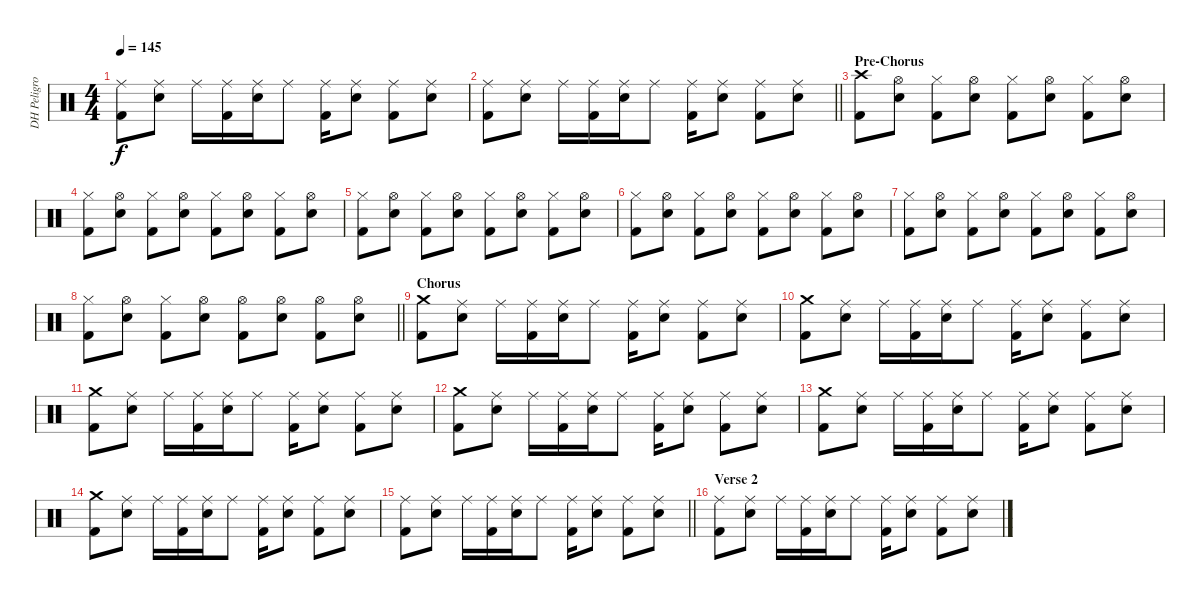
\track ("DH Peligro" "DH Peligro") {instrument percussion}
\staff {score}
\articulation defaults
\ts (4 4)
\tempo 145
\clef neutral
\ks c
("Ride (middle)" "Kick (hit) 2").8{dy f} ("Ride (middle)" "Snare (hit) 2").8 "Ride (middle)".16 ("Ride (middle)" "Kick (hit) 2").16 ("Ride (middle)" "Snare (hit) 2").16 "Ride (middle)".8 ("Ride (middle)" "Kick (hit) 2").16 ("Ride (middle)" "Snare (hit) 2").8 ("Ride (middle)" "Kick (hit) 2").8 ("Ride (middle)" "Snare (hit) 2").8 |
\barLineRight lightlight
("Ride (middle)" "Kick (hit) 2").8 ("Ride (middle)" "Snare (hit) 2").8 "Ride (middle)".16 ("Ride (middle)" "Kick (hit) 2").16 ("Ride (middle)" "Snare (hit) 2").16 "Ride (middle)".8 ("Ride (middle)" "Kick (hit) 2").16 ("Ride (middle)" "Snare (hit) 2").8 ("Ride (middle)" "Kick (hit) 2").8 ("Ride (middle)" "Snare (hit) 2").8 |
\section ("" "Pre-Chorus")
("Crash high (hit)" "Kick (hit) 2").8 ("Hi-Hat (open)" "Snare (hit) 2").8 ("Hi-Hat (closed)" "Kick (hit) 2").8 ("Hi-Hat (open)" "Snare (hit) 2").8 ("Hi-Hat (closed)" "Kick (hit) 2").8 ("Hi-Hat (open)" "Snare (hit) 2").8 ("Hi-Hat (closed)" "Kick (hit) 2").8 ("Hi-Hat (open)" "Snare (hit) 2").8 |
("Hi-Hat (closed)" "Kick (hit) 2").8 ("Hi-Hat (open)" "Snare (hit) 2").8 ("Hi-Hat (closed)" "Kick (hit) 2").8 ("Hi-Hat (open)" "Snare (hit) 2").8 ("Hi-Hat (closed)" "Kick (hit) 2").8 ("Hi-Hat (open)" "Snare (hit) 2").8 ("Hi-Hat (closed)" "Kick (hit) 2").8 ("Hi-Hat (open)" "Snare (hit) 2").8 |
("Hi-Hat (closed)" "Kick (hit) 2").8 ("Hi-Hat (open)" "Snare (hit) 2").8 ("Hi-Hat (closed)" "Kick (hit) 2").8 ("Hi-Hat (open)" "Snare (hit) 2").8 ("Hi-Hat (closed)" "Kick (hit) 2").8 ("Hi-Hat (open)" "Snare (hit) 2").8 ("Hi-Hat (closed)" "Kick (hit) 2").8 ("Hi-Hat (open)" "Snare (hit) 2").8 |
("Hi-Hat (closed)" "Kick (hit) 2").8 ("Hi-Hat (open)" "Snare (hit) 2").8 ("Hi-Hat (closed)" "Kick (hit) 2").8 ("Hi-Hat (open)" "Snare (hit) 2").8 ("Hi-Hat (closed)" "Kick (hit) 2").8 ("Hi-Hat (open)" "Snare (hit) 2").8 ("Hi-Hat (closed)" "Kick (hit) 2").8 ("Hi-Hat (open)" "Snare (hit) 2").8 |
("Hi-Hat (closed)" "Kick (hit) 2").8 ("Hi-Hat (open)" "Snare (hit) 2").8 ("Hi-Hat (closed)" "Kick (hit) 2").8 ("Hi-Hat (open)" "Snare (hit) 2").8 ("Hi-Hat (closed)" "Kick (hit) 2").8 ("Hi-Hat (open)" "Snare (hit) 2").8 ("Hi-Hat (closed)" "Kick (hit) 2").8 ("Hi-Hat (open)" "Snare (hit) 2").8 |
\barLineRight lightlight
("Hi-Hat (closed)" "Kick (hit) 2").8 ("Hi-Hat (open)" "Snare (hit) 2").8 ("Hi-Hat (closed)" "Kick (hit) 2").8 ("Hi-Hat (open)" "Snare (hit) 2").8 ("Hi-Hat (open)" "Kick (hit) 2").8 ("Hi-Hat (open)" "Snare (hit) 2").8 ("Hi-Hat (open)" "Kick (hit) 2").8 ("Hi-Hat (open)" "Snare (hit) 2").8 |
\section ("" "Chorus")
("Crash medium (hit)" "Kick (hit) 2").8 ("Ride (middle)" "Snare (hit) 2").8 "Ride (middle)".16 ("Ride (middle)" "Kick (hit) 2").16 ("Ride (middle)" "Snare (hit) 2").16 "Ride (middle)".8 ("Ride (middle)" "Kick (hit) 2").16 ("Ride (middle)" "Snare (hit) 2").8 ("Ride (middle)" "Kick (hit) 2").8 ("Ride (middle)" "Snare (hit) 2").8 |
("Crash medium (hit)" "Kick (hit) 2").8 ("Ride (middle)" "Snare (hit) 2").8 "Ride (middle)".16 ("Ride (middle)" "Kick (hit) 2").16 ("Ride (middle)" "Snare (hit) 2").16 "Ride (middle)".8 ("Ride (middle)" "Kick (hit) 2").16 ("Ride (middle)" "Snare (hit) 2").8 ("Ride (middle)" "Kick (hit) 2").8 ("Ride (middle)" "Snare (hit) 2").8 |
("Crash medium (hit)" "Kick (hit) 2").8 ("Ride (middle)" "Snare (hit) 2").8 "Ride (middle)".16 ("Ride (middle)" "Kick (hit) 2").16 ("Ride (middle)" "Snare (hit) 2").16 "Ride (middle)".8 ("Ride (middle)" "Kick (hit) 2").16 ("Ride (middle)" "Snare (hit) 2").8 ("Ride (middle)" "Kick (hit) 2").8 ("Ride (middle)" "Snare (hit) 2").8 |
("Crash medium (hit)" "Kick (hit) 2").8 ("Ride (middle)" "Snare (hit) 2").8 "Ride (middle)".16 ("Ride (middle)" "Kick (hit) 2").16 ("Ride (middle)" "Snare (hit) 2").16 "Ride (middle)".8 ("Ride (middle)" "Kick (hit) 2").16 ("Ride (middle)" "Snare (hit) 2").8 ("Ride (middle)" "Kick (hit) 2").8 ("Ride (middle)" "Snare (hit) 2").8 |
("Crash medium (hit)" "Kick (hit) 2").8 ("Ride (middle)" "Snare (hit) 2").8 "Ride (middle)".16 ("Ride (middle)" "Kick (hit) 2").16 ("Ride (middle)" "Snare (hit) 2").16 "Ride (middle)".8 ("Ride (middle)" "Kick (hit) 2").16 ("Ride (middle)" "Snare (hit) 2").8 ("Ride (middle)" "Kick (hit) 2").8 ("Ride (middle)" "Snare (hit) 2").8 |
("Crash medium (hit)" "Kick (hit) 2").8 ("Ride (middle)" "Snare (hit) 2").8 "Ride (middle)".16 ("Ride (middle)" "Kick (hit) 2").16 ("Ride (middle)" "Snare (hit) 2").16 "Ride (middle)".8 ("Ride (middle)" "Kick (hit) 2").16 ("Ride (middle)" "Snare (hit) 2").8 ("Ride (middle)" "Kick (hit) 2").8 ("Ride (middle)" "Snare (hit) 2").8 |
\barLineRight lightlight
("Ride (middle)" "Kick (hit) 2").8 ("Ride (middle)" "Snare (hit) 2").8 "Ride (middle)".16 ("Ride (middle)" "Kick (hit) 2").16 ("Ride (middle)" "Snare (hit) 2").16 "Ride (middle)".8 ("Ride (middle)" "Kick (hit) 2").16 ("Ride (middle)" "Snare (hit) 2").8 ("Ride (middle)" "Kick (hit) 2").8 ("Ride (middle)" "Snare (hit) 2").8 |
\section ("" "Verse 2")
("Ride (middle)" "Kick (hit) 2").8 ("Ride (middle)" "Snare (hit) 2").8 "Ride (middle)".16 ("Ride (middle)" "Kick (hit) 2").16 ("Ride (middle)" "Snare (hit) 2").16 "Ride (middle)".8 ("Ride (middle)" "Kick (hit) 2").16 ("Ride (middle)" "Snare (hit) 2").8 ("Ride (middle)" "Kick (hit) 2").8 ("Ride (middle)" "Snare (hit) 2").8
